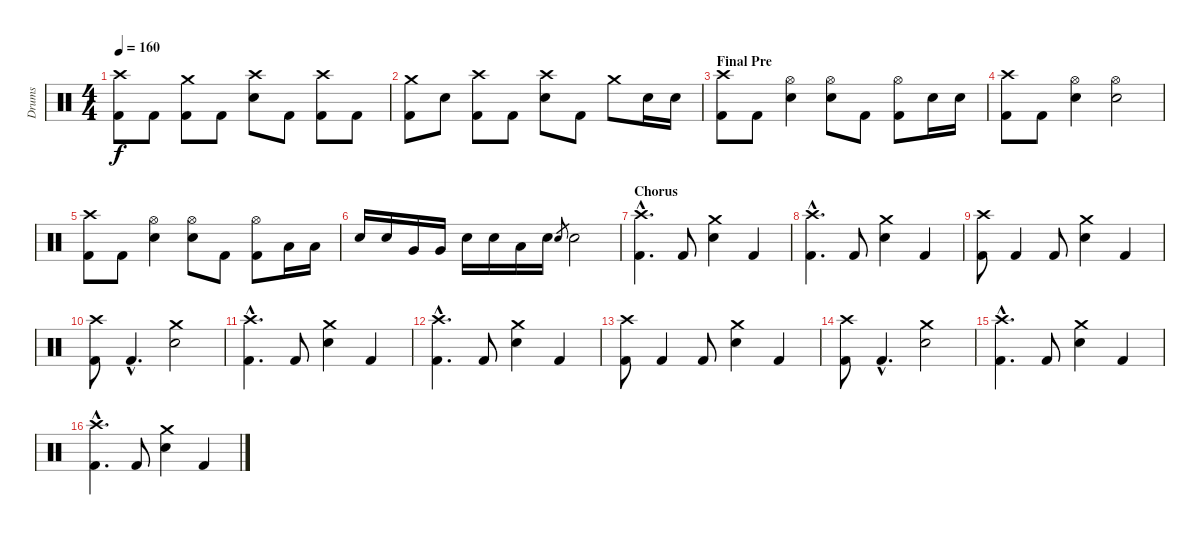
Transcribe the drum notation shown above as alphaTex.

\track ("Drums" "Drums") {instrument percussion}
\staff {score}
\articulation defaults
\ts (4 4)
\tempo 160
\clef neutral
\ks c
("Kick (hit) 2" "Crash high (hit)").8{dy f} "Kick (hit) 2".8 ("Kick (hit) 2" "Crash medium (hit)").8 "Kick (hit) 2".8 ("Electric Snare (hit)" "Crash high (hit)").8 "Kick (hit) 2".8 ("Kick (hit) 2" "Crash high (hit)").8 "Kick (hit) 2".8 |
("Kick (hit) 2" "Crash medium (hit)").8 "Electric Snare (hit)".8 ("Kick (hit) 2" "Crash high (hit)").8 "Kick (hit) 2".8 ("Electric Snare (hit)" "Crash high (hit)").8 "Kick (hit) 2".8 "Crash medium (hit)".8 "Electric Snare (hit)".16 "Electric Snare (hit)".16 |
\section ("" "Final Pre")
("Kick (hit) 2" "Crash high (hit)").8 "Kick (hit) 2".8 ("Electric Snare (hit)" "Hi-Hat (open)").4 ("Electric Snare (hit)" "Hi-Hat (open)").8 "Kick (hit) 2".8 ("Kick (hit) 2" "Hi-Hat (open)").8 "Electric Snare (hit)".16 "Electric Snare (hit)".16 |
("Kick (hit) 2" "Crash high (hit)").8 "Kick (hit) 2".8 ("Electric Snare (hit)" "Hi-Hat (open)").4 ("Electric Snare (hit)" "Hi-Hat (open)").2 |
("Kick (hit) 2" "Crash high (hit)").8 "Kick (hit) 2".8 ("Electric Snare (hit)" "Hi-Hat (open)").4 ("Electric Snare (hit)" "Hi-Hat (open)").8 "Kick (hit) 2".8 ("Kick (hit) 2" "Hi-Hat (open)").8 "Low Tom (hit)".16 "Low Tom (hit)".16 |
"Electric Snare (hit)".16 "Electric Snare (hit)".16 "Very Low Tom (hit)".16 "Very Low Tom (hit)".16 "Electric Snare (hit)".16 "Electric Snare (hit)".16 "Low Tom (hit)".16 "Snare (hit)".16 "Electric Snare (hit)".8{gr} "Electric Snare (hit)".2 |
\section ("" "Chorus")
("Kick (hit) 2"{hac} "Crash high (hit)"{hac}).4{d} "Kick (hit) 2".8 ("Electric Snare (hit)" "Crash medium (hit)").4 "Kick (hit) 2".4 |
("Kick (hit) 2"{hac} "Crash high (hit)"{hac}).4{d} "Kick (hit) 2".8 ("Electric Snare (hit)" "Crash medium (hit)").4 "Kick (hit) 2".4 |
("Kick (hit) 2" "Crash high (hit)").8 "Kick (hit) 2".4 "Kick (hit) 2".8 ("Electric Snare (hit)" "Crash medium (hit)").4 "Kick (hit) 2".4 |
("Kick (hit) 2" "Crash high (hit)").8 "Kick (hit) 2"{hac}.4{d} ("Electric Snare (hit)" "Crash medium (hit)").2 |
("Kick (hit) 2"{hac} "Crash high (hit)"{hac}).4{d} "Kick (hit) 2".8 ("Electric Snare (hit)" "Crash medium (hit)").4 "Kick (hit) 2".4 |
("Kick (hit) 2"{hac} "Crash high (hit)"{hac}).4{d} "Kick (hit) 2".8 ("Electric Snare (hit)" "Crash medium (hit)").4 "Kick (hit) 2".4 |
("Kick (hit) 2" "Crash high (hit)").8 "Kick (hit) 2".4 "Kick (hit) 2".8 ("Electric Snare (hit)" "Crash medium (hit)").4 "Kick (hit) 2".4 |
("Kick (hit) 2" "Crash high (hit)").8 "Kick (hit) 2"{hac}.4{d} ("Electric Snare (hit)" "Crash medium (hit)").2 |
("Kick (hit) 2"{hac} "Crash high (hit)"{hac}).4{d} "Kick (hit) 2".8 ("Electric Snare (hit)" "Crash medium (hit)").4 "Kick (hit) 2".4 |
("Kick (hit) 2"{hac} "Crash high (hit)"{hac}).4{d} "Kick (hit) 2".8 ("Electric Snare (hit)" "Crash medium (hit)").4 "Kick (hit) 2".4
